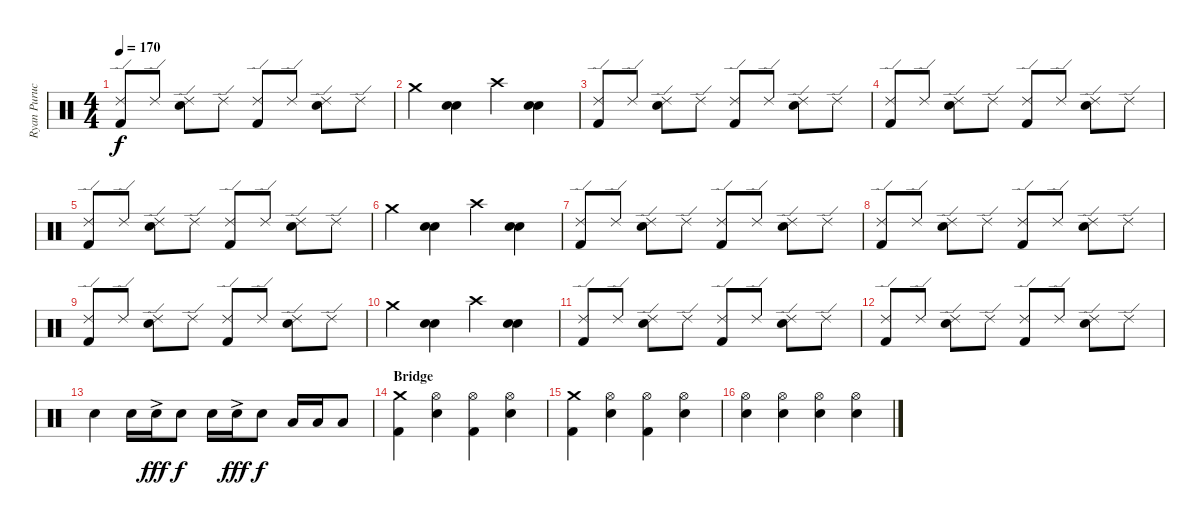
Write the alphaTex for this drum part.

\track ("Ryan Purucker" "Ryan Puruc") {instrument percussion}
\staff {score}
\articulation defaults
\ts (4 4)
\tempo 170
\clef neutral
\ks c
("Ride (edge) 2" "Kick (hit) 2").8{dy f} "Ride (edge) 2".8 ("Ride (edge) 2" "Snare (hit) 2").8 "Ride (edge) 2".8 ("Ride (edge) 2" "Kick (hit) 2").8 "Ride (edge) 2".8 ("Ride (edge) 2" "Snare (hit) 2").8 "Ride (edge) 2".8 |
"Crash medium (hit)".4 ("Snare (hit) 2" "Snare (hit) 2").4 "Crash high (hit)".4 ("Snare (hit) 2" "Snare (hit) 2").4 |
("Ride (edge) 2" "Kick (hit) 2").8 "Ride (edge) 2".8 ("Ride (edge) 2" "Snare (hit) 2").8 "Ride (edge) 2".8 ("Ride (edge) 2" "Kick (hit) 2").8 "Ride (edge) 2".8 ("Ride (edge) 2" "Snare (hit) 2").8 "Ride (edge) 2".8 |
("Ride (edge) 2" "Kick (hit) 2").8 "Ride (edge) 2".8 ("Ride (edge) 2" "Snare (hit) 2").8 "Ride (edge) 2".8 ("Ride (edge) 2" "Kick (hit) 2").8 "Ride (edge) 2".8 ("Ride (edge) 2" "Snare (hit) 2").8 "Ride (edge) 2".8 |
("Ride (edge) 2" "Kick (hit) 2").8 "Ride (edge) 2".8 ("Ride (edge) 2" "Snare (hit) 2").8 "Ride (edge) 2".8 ("Ride (edge) 2" "Kick (hit) 2").8 "Ride (edge) 2".8 ("Ride (edge) 2" "Snare (hit) 2").8 "Ride (edge) 2".8 |
"Crash medium (hit)".4 ("Snare (hit) 2" "Snare (hit) 2").4 "Crash high (hit)".4 ("Snare (hit) 2" "Snare (hit) 2").4 |
("Ride (edge) 2" "Kick (hit) 2").8 "Ride (edge) 2".8 ("Ride (edge) 2" "Snare (hit) 2").8 "Ride (edge) 2".8 ("Ride (edge) 2" "Kick (hit) 2").8 "Ride (edge) 2".8 ("Ride (edge) 2" "Snare (hit) 2").8 "Ride (edge) 2".8 |
("Ride (edge) 2" "Kick (hit) 2").8 "Ride (edge) 2".8 ("Ride (edge) 2" "Snare (hit) 2").8 "Ride (edge) 2".8 ("Ride (edge) 2" "Kick (hit) 2").8 "Ride (edge) 2".8 ("Ride (edge) 2" "Snare (hit) 2").8 "Ride (edge) 2".8 |
("Ride (edge) 2" "Kick (hit) 2").8 "Ride (edge) 2".8 ("Ride (edge) 2" "Snare (hit) 2").8 "Ride (edge) 2".8 ("Ride (edge) 2" "Kick (hit) 2").8 "Ride (edge) 2".8 ("Ride (edge) 2" "Snare (hit) 2").8 "Ride (edge) 2".8 |
"Crash medium (hit)".4 ("Snare (hit) 2" "Snare (hit) 2").4 "Crash high (hit)".4 ("Snare (hit) 2" "Snare (hit) 2").4 |
("Ride (edge) 2" "Kick (hit) 2").8 "Ride (edge) 2".8 ("Ride (edge) 2" "Snare (hit) 2").8 "Ride (edge) 2".8 ("Ride (edge) 2" "Kick (hit) 2").8 "Ride (edge) 2".8 ("Ride (edge) 2" "Snare (hit) 2").8 "Ride (edge) 2".8 |
("Ride (edge) 2" "Kick (hit) 2").8 "Ride (edge) 2".8 ("Ride (edge) 2" "Snare (hit) 2").8 "Ride (edge) 2".8 ("Ride (edge) 2" "Kick (hit) 2").8 "Ride (edge) 2".8 ("Ride (edge) 2" "Snare (hit) 2").8 "Ride (edge) 2".8 |
"Electric Snare (hit)".4 "Electric Snare (hit)".16 "Electric Snare (hit)"{ac}.16{dy fff} "Electric Snare (hit)".8{dy f} "Electric Snare (hit)".16 "Electric Snare (hit)"{ac}.16{dy fff} "Electric Snare (hit)".8{dy f} "Low Tom (hit)".16 "Low Tom (hit)".16 "Low Tom (hit)".8 |
\section ("" "Bridge")
("Kick (hit) 2" "Crash medium (hit)").4 ("Snare (hit) 2" "Hi-Hat (open)").4 ("Kick (hit) 2" "Hi-Hat (open)").4 ("Snare (hit) 2" "Hi-Hat (open)").4 |
("Kick (hit) 2" "Crash medium (hit)").4 ("Snare (hit) 2" "Hi-Hat (open)").4 ("Kick (hit) 2" "Hi-Hat (open)").4 ("Snare (hit) 2" "Hi-Hat (open)").4 |
("Snare (hit) 2" "Hi-Hat (open)").4 ("Snare (hit) 2" "Hi-Hat (open)").4 ("Snare (hit) 2" "Hi-Hat (open)").4 ("Snare (hit) 2" "Hi-Hat (open)").4
